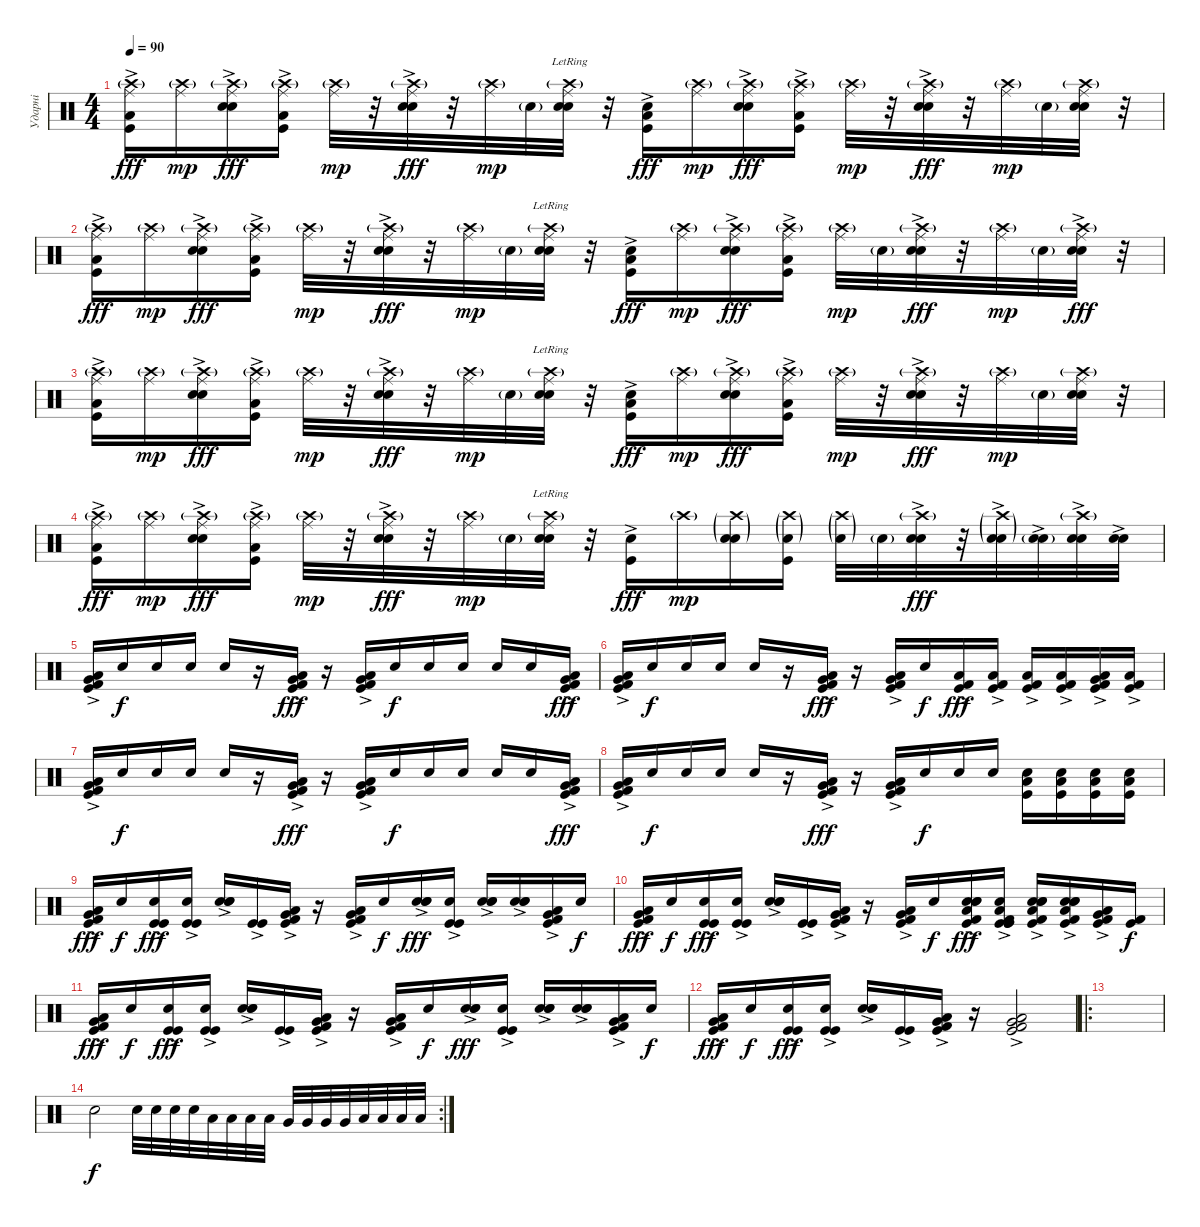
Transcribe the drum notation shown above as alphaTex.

\track ("Ударні" "Ударні") {instrument percussion}
\staff {score}
\articulation defaults
\ts (4 4)
\tempo 90
\clef neutral
\ks c
("Ride (middle)" "Crash high (hit)"{g} "Low Floor Tom (hit)" "Kick (hit)"{ac}).16{dy fff} ("Ride (middle)" "Crash high (hit)"{g}).16{dy mp} ("Ride (middle)" "Crash high (hit)"{g} "Electric Snare (hit)"{ac} "Snare (hit) 2").16{dy fff} ("Ride (middle)" "Crash high (hit)"{g} "Low Floor Tom (hit)" "Kick (hit)"{ac}).16 ("Ride (middle)" "Crash high (hit)"{g}).32{dy mp} r.32 ("Ride (middle)" "Crash high (hit)"{g} "Electric Snare (hit)"{ac} "Snare (hit) 2").32{dy fff} r.32 ("Ride (middle)" "Crash high (hit)"{g}).32{dy mp} "Electric Snare (hit)"{g}.32 ("Ride (middle)" "Crash high (hit)"{g} "Electric Snare (hit)"{lr} "Snare (hit) 2").32 r.32 ("Snare (hit)" "Low Floor Tom (hit)" "Kick (hit)"{ac}).16{dy fff} ("Ride (middle)" "Crash high (hit)"{g}).16{dy mp} ("Ride (middle)" "Crash high (hit)"{g} "Electric Snare (hit)"{ac} "Snare (hit) 2").16{dy fff} ("Ride (middle)" "Crash high (hit)"{g} "Low Floor Tom (hit)" "Kick (hit)"{ac}).16 ("Ride (middle)" "Crash high (hit)"{g}).32{dy mp} r.32 ("Ride (middle)" "Crash high (hit)"{g} "Electric Snare (hit)"{ac} "Snare (hit) 2").32{dy fff} r.32 ("Ride (middle)" "Crash high (hit)"{g}).32{dy mp} "Electric Snare (hit)"{g}.32 ("Ride (middle)" "Crash high (hit)"{g} "Electric Snare (hit)" "Snare (hit) 2").32 r.32 |
("Ride (middle)" "Crash high (hit)"{g} "Low Floor Tom (hit)" "Kick (hit)"{ac}).16{dy fff} ("Ride (middle)" "Crash high (hit)"{g}).16{dy mp} ("Ride (middle)" "Crash high (hit)"{g} "Electric Snare (hit)"{ac} "Snare (hit) 2").16{dy fff} ("Ride (middle)" "Crash high (hit)"{g} "Low Floor Tom (hit)" "Kick (hit)"{ac}).16 ("Ride (middle)" "Crash high (hit)"{g}).32{dy mp} r.32 ("Ride (middle)" "Crash high (hit)"{g} "Electric Snare (hit)"{ac} "Snare (hit) 2").32{dy fff} r.32 ("Ride (middle)" "Crash high (hit)"{g}).32{dy mp} "Electric Snare (hit)"{g}.32 ("Ride (middle)" "Crash high (hit)"{g} "Electric Snare (hit)"{lr} "Snare (hit) 2").32 r.32 ("Snare (hit)" "Low Floor Tom (hit)" "Kick (hit)"{ac}).16{dy fff} ("Ride (middle)" "Crash high (hit)"{g}).16{dy mp} ("Ride (middle)" "Crash high (hit)"{g} "Electric Snare (hit)"{ac} "Snare (hit) 2").16{dy fff} ("Ride (middle)" "Crash high (hit)"{g} "Low Floor Tom (hit)" "Kick (hit)"{ac}).16 ("Ride (middle)" "Crash high (hit)"{g}).32{dy mp} "Electric Snare (hit)"{g}.32 ("Ride (middle)" "Crash high (hit)"{g} "Electric Snare (hit)"{ac} "Snare (hit) 2").32{dy fff} r.32 ("Ride (middle)" "Crash high (hit)"{g}).32{dy mp} "Electric Snare (hit)"{g}.32 ("Ride (middle)" "Crash high (hit)"{g} "Electric Snare (hit)"{ac} "Snare (hit) 2").32{dy fff} r.32 |
("Ride (middle)" "Crash high (hit)"{g} "Low Floor Tom (hit)" "Kick (hit)"{ac}).16 ("Ride (middle)" "Crash high (hit)"{g}).16{dy mp} ("Ride (middle)" "Crash high (hit)"{g} "Electric Snare (hit)"{ac} "Snare (hit) 2").16{dy fff} ("Ride (middle)" "Crash high (hit)"{g} "Low Floor Tom (hit)" "Kick (hit)"{ac}).16 ("Ride (middle)" "Crash high (hit)"{g}).32{dy mp} r.32 ("Ride (middle)" "Crash high (hit)"{g} "Electric Snare (hit)"{ac} "Snare (hit) 2").32{dy fff} r.32 ("Ride (middle)" "Crash high (hit)"{g}).32{dy mp} "Electric Snare (hit)"{g}.32 ("Ride (middle)" "Crash high (hit)"{g} "Electric Snare (hit)"{lr} "Snare (hit) 2").32 r.32 ("Snare (hit)" "Low Floor Tom (hit)" "Kick (hit)"{ac}).16{dy fff} ("Ride (middle)" "Crash high (hit)"{g}).16{dy mp} ("Ride (middle)" "Crash high (hit)"{g} "Electric Snare (hit)"{ac} "Snare (hit) 2").16{dy fff} ("Ride (middle)" "Crash high (hit)"{g} "Low Floor Tom (hit)" "Kick (hit)"{ac}).16 ("Ride (middle)" "Crash high (hit)"{g}).32{dy mp} r.32 ("Ride (middle)" "Crash high (hit)"{g} "Electric Snare (hit)"{ac} "Snare (hit) 2").32{dy fff} r.32 ("Ride (middle)" "Crash high (hit)"{g}).32{dy mp} "Electric Snare (hit)"{g}.32 ("Ride (middle)" "Crash high (hit)"{g} "Electric Snare (hit)" "Snare (hit) 2").32 r.32 |
("Ride (middle)" "Crash high (hit)"{g} "Low Floor Tom (hit)" "Kick (hit)"{ac}).16{dy fff} ("Ride (middle)" "Crash high (hit)"{g}).16{dy mp} ("Ride (middle)" "Crash high (hit)"{g} "Electric Snare (hit)"{ac} "Snare (hit) 2").16{dy fff} ("Ride (middle)" "Crash high (hit)"{g} "Low Floor Tom (hit)" "Kick (hit)"{ac}).16 ("Ride (middle)" "Crash high (hit)"{g}).32{dy mp} r.32 ("Ride (middle)" "Crash high (hit)"{g} "Electric Snare (hit)"{ac} "Snare (hit) 2").32{dy fff} r.32 ("Ride (middle)" "Crash high (hit)"{g}).32{dy mp} "Electric Snare (hit)"{g}.32 ("Ride (middle)" "Crash high (hit)"{g} "Electric Snare (hit)"{lr} "Snare (hit) 2").32 r.32 ("Snare (hit)" "Kick (hit)"{ac}).16{dy fff} "Crash high (hit)"{g}.16{dy mp} ("Crash high (hit)"{g} "Electric Snare (hit)"{g} "Snare (hit) 2").16 ("Crash high (hit)"{g} "Electric Snare (hit)"{g} "Kick (hit)").16 ("Crash high (hit)"{g} "Electric Snare (hit)"{g}).32 "Electric Snare (hit)"{g}.32 ("Crash high (hit)"{g} "Electric Snare (hit)"{ac} "Snare (hit) 2").32{dy fff} r.32 ("Crash high (hit)"{g} "Electric Snare (hit)"{g} "Snare (hit) 2"{ac}).32 ("Electric Snare (hit)"{g} "Snare (hit) 2"{ac}).32 ("Crash high (hit)"{g} "Electric Snare (hit)" "Snare (hit) 2"{ac}).32 ("Electric Snare (hit)" "Snare (hit) 2"{ac}).32 |
("Very Low Tom (hit)" "Kick (hit) 2" "Low Floor Tom (hit)"{ac} "Kick (hit)"{ac}).16 "Snare (hit)".16{dy f} "Snare (hit)".16 "Snare (hit)".16 "Snare (hit)".16 r.16 ("Very Low Tom (hit)" "Kick (hit) 2" "Low Floor Tom (hit)"{ac} "Kick (hit)"{ac}).16{dy fff} r.16 ("Very Low Tom (hit)" "Kick (hit) 2" "Low Floor Tom (hit)"{ac} "Kick (hit)"{ac}).16 "Snare (hit)".16{dy f} "Snare (hit)".16 "Snare (hit)".16 "Snare (hit)".16 "Snare (hit)".16 ("Very Low Tom (hit)" "Kick (hit) 2" "Low Floor Tom (hit)"{ac} "Kick (hit)"{ac}).16{dy fff} |
("Very Low Tom (hit)" "Kick (hit) 2" "Low Floor Tom (hit)"{ac} "Kick (hit)"{ac}).16 "Snare (hit)".16{dy f} "Snare (hit)".16 "Snare (hit)".16 "Snare (hit)".16 r.16 ("Very Low Tom (hit)" "Kick (hit) 2" "Low Floor Tom (hit)"{ac} "Kick (hit)"{ac}).16{dy fff} r.16 ("Very Low Tom (hit)" "Kick (hit) 2" "Low Floor Tom (hit)"{ac} "Kick (hit)"{ac}).16 "Snare (hit)".16{dy f} ("Kick (hit) 2"{ac} "Low Floor Tom (hit)" "Kick (hit)"{ac}).16{dy fff} ("Kick (hit) 2"{ac} "Low Floor Tom (hit)" "Kick (hit)"{ac}).16 ("Kick (hit) 2"{ac} "Low Floor Tom (hit)" "Kick (hit)"{ac}).16 ("Kick (hit) 2"{ac} "Low Floor Tom (hit)" "Kick (hit)"{ac}).16 ("Very Low Tom (hit)" "Kick (hit) 2" "Low Floor Tom (hit)"{ac} "Kick (hit)"{ac}).16 ("Kick (hit) 2"{ac} "Low Floor Tom (hit)" "Kick (hit)"{ac}).16 |
("Very Low Tom (hit)" "Kick (hit) 2" "Low Floor Tom (hit)"{ac} "Kick (hit)"{ac}).16 "Snare (hit)".16{dy f} "Snare (hit)".16 "Snare (hit)".16 "Snare (hit)".16 r.16 ("Very Low Tom (hit)" "Kick (hit) 2" "Low Floor Tom (hit)"{ac} "Kick (hit)"{ac}).16{dy fff} r.16 ("Very Low Tom (hit)" "Kick (hit) 2" "Low Floor Tom (hit)"{ac} "Kick (hit)"{ac}).16 "Snare (hit)".16{dy f} "Snare (hit)".16 "Snare (hit)".16 "Snare (hit)".16 "Snare (hit)".16 ("Very Low Tom (hit)" "Kick (hit) 2" "Low Floor Tom (hit)"{ac} "Kick (hit)"{ac}).16{dy fff} |
("Very Low Tom (hit)" "Kick (hit) 2" "Low Floor Tom (hit)"{ac} "Kick (hit)"{ac}).16 "Snare (hit)".16{dy f} "Snare (hit)".16 "Snare (hit)".16 "Snare (hit)".16 r.16 ("Very Low Tom (hit)" "Kick (hit) 2" "Low Floor Tom (hit)"{ac} "Kick (hit)"{ac}).16{dy fff} r.16 ("Very Low Tom (hit)" "Kick (hit) 2" "Low Floor Tom (hit)"{ac} "Kick (hit)"{ac}).16 "Snare (hit)".16{dy f} "Snare (hit)".16 "Snare (hit)".16 ("Snare (hit)" "Low Floor Tom (hit)" "Kick (hit)").16 ("Snare (hit)" "Low Floor Tom (hit)" "Kick (hit)").16 ("Snare (hit)" "Low Floor Tom (hit)" "Kick (hit)").16 ("Snare (hit)" "Low Floor Tom (hit)" "Kick (hit)").16 |
("Very Low Tom (hit)" "Kick (hit) 2" "Low Floor Tom (hit)"{ac} "Kick (hit)"{ac}).16{dy fff} "Snare (hit)".16{dy f} ("Snare (hit)" "Kick (hit)"{ac} "Kick (hit)"{ac}).16{dy fff} ("Snare (hit)" "Kick (hit)"{ac} "Kick (hit)"{ac}).16 ("Snare (hit)" "Electric Snare (hit)"{ac} "Electric Snare (hit)"{ac}).16 ("Kick (hit)"{ac} "Kick (hit)").16 ("Very Low Tom (hit)" "Kick (hit) 2" "Low Floor Tom (hit)"{ac} "Kick (hit)"{ac}).16 r.16 ("Very Low Tom (hit)" "Kick (hit) 2" "Low Floor Tom (hit)"{ac} "Kick (hit)"{ac}).16 "Snare (hit)".16{dy f} ("Snare (hit)" "Electric Snare (hit)"{ac} "Electric Snare (hit)"{ac}).16{dy fff} ("Snare (hit)" "Kick (hit)"{ac} "Kick (hit)"{ac}).16 ("Snare (hit)" "Electric Snare (hit)"{ac} "Electric Snare (hit)"{ac}).16 ("Snare (hit)" "Electric Snare (hit)"{ac} "Electric Snare (hit)"{ac}).16 ("Very Low Tom (hit)" "Kick (hit) 2" "Low Floor Tom (hit)"{ac} "Kick (hit)"{ac}).16 "Snare (hit)".16{dy f} |
("Very Low Tom (hit)" "Kick (hit) 2" "Low Floor Tom (hit)"{ac} "Kick (hit)"{ac}).16{dy fff} "Snare (hit)".16{dy f} ("Snare (hit)" "Kick (hit)"{ac} "Kick (hit)"{ac}).16{dy fff} ("Snare (hit)" "Kick (hit)"{ac} "Kick (hit)"{ac}).16 ("Snare (hit)" "Electric Snare (hit)"{ac} "Electric Snare (hit)"{ac}).16 ("Kick (hit)"{ac} "Kick (hit)"{ac}).16 ("Very Low Tom (hit)" "Kick (hit) 2" "Low Floor Tom (hit)"{ac} "Kick (hit)"{ac}).16 r.16 ("Very Low Tom (hit)" "Kick (hit) 2" "Low Floor Tom (hit)"{ac} "Kick (hit)"{ac}).16 "Snare (hit)".16{dy f} ("Kick (hit) 2" "Kick (hit)" "Low Floor Tom (hit)" "Snare (hit)" "Electric Snare (hit)"{ac} "Electric Snare (hit)"{ac}).16{dy fff} ("Kick (hit) 2" "Kick (hit)" "Low Floor Tom (hit)" "Snare (hit)" "Kick (hit)"{ac} "Kick (hit)"{ac}).16 ("Kick (hit) 2" "Kick (hit)" "Low Floor Tom (hit)" "Snare (hit)" "Electric Snare (hit)"{ac} "Electric Snare (hit)"{ac}).16 ("Kick (hit) 2" "Kick (hit)" "Low Floor Tom (hit)" "Snare (hit)" "Electric Snare (hit)"{ac} "Electric Snare (hit)"{ac}).16 ("Very Low Tom (hit)" "Kick (hit) 2" "Low Floor Tom (hit)"{ac} "Kick (hit)"{ac}).16 ("Kick (hit) 2" "Kick (hit)").16{dy f} |
("Very Low Tom (hit)" "Kick (hit) 2" "Low Floor Tom (hit)"{ac} "Kick (hit)"{ac}).16{dy fff} "Snare (hit)".16{dy f} ("Snare (hit)" "Kick (hit)"{ac} "Kick (hit)"{ac}).16{dy fff} ("Snare (hit)" "Kick (hit)"{ac} "Kick (hit)"{ac}).16 ("Snare (hit)" "Electric Snare (hit)"{ac} "Electric Snare (hit)"{ac}).16 ("Kick (hit)"{ac} "Kick (hit)").16 ("Very Low Tom (hit)" "Kick (hit) 2" "Low Floor Tom (hit)"{ac} "Kick (hit)"{ac}).16 r.16 ("Very Low Tom (hit)" "Kick (hit) 2" "Low Floor Tom (hit)"{ac} "Kick (hit)"{ac}).16 "Snare (hit)".16{dy f} ("Snare (hit)" "Electric Snare (hit)"{ac} "Electric Snare (hit)"{ac}).16{dy fff} ("Snare (hit)" "Kick (hit)"{ac} "Kick (hit)"{ac}).16 ("Snare (hit)" "Electric Snare (hit)"{ac} "Electric Snare (hit)"{ac}).16 ("Snare (hit)" "Electric Snare (hit)"{ac} "Electric Snare (hit)"{ac}).16 ("Very Low Tom (hit)" "Kick (hit) 2" "Low Floor Tom (hit)"{ac} "Kick (hit)"{ac}).16 "Snare (hit)".16{dy f} |
("Very Low Tom (hit)" "Kick (hit) 2" "Low Floor Tom (hit)"{ac} "Kick (hit)"{ac}).16{dy fff} "Snare (hit)".16{dy f} ("Snare (hit)" "Kick (hit)"{ac} "Kick (hit)"{ac}).16{dy fff} ("Snare (hit)" "Kick (hit)"{ac} "Kick (hit)"{ac}).16 ("Snare (hit)" "Electric Snare (hit)"{ac} "Electric Snare (hit)"{ac}).16 ("Kick (hit)"{ac} "Kick (hit)"{ac}).16 ("Very Low Tom (hit)" "Kick (hit) 2" "Low Floor Tom (hit)"{ac} "Kick (hit)"{ac}).16 r.16 ("Very Low Tom (hit)" "Kick (hit) 2" "Low Floor Tom (hit)"{ac} "Kick (hit)"{ac}).2 |
\ro
|
\rc 2 "Snare (hit)".2{dy f} "Electric Snare (hit)".32 "Electric Snare (hit)".32 "Electric Snare (hit)".32 "Electric Snare (hit)".32 "Low Tom (hit)".32 "Low Tom (hit)".32 "Low Tom (hit)".32 "Low Tom (hit)".32 "Very Low Tom (hit)".32 "Very Low Tom (hit)".32 "Very Low Tom (hit)".32 "Very Low Tom (hit)".32 "Low Floor Tom (hit)".32 "Low Floor Tom (hit)".32 "Low Floor Tom (hit)".32 "Low Floor Tom (hit)".32
